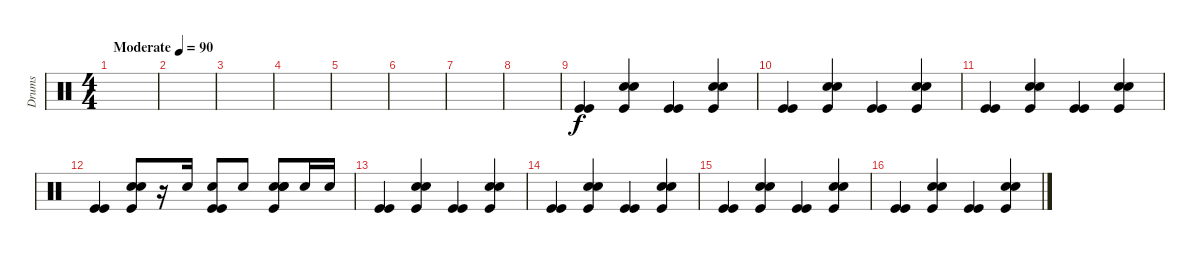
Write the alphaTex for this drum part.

\track ("Drums" "Drums") {instrument percussion}
\staff {score}
\articulation defaults
\ts (4 4)
\tempo (90 "Moderate")
\clef neutral
\ks c
|
|
|
|
|
|
|
|
("Kick (hit)" "Kick (hit)").4 ("Hand Clap (hit)" "Kick (hit)" "Snare (hit) 2").4 ("Kick (hit)" "Kick (hit)").4 ("Hand Clap (hit)" "Kick (hit)" "Snare (hit) 2").4 |
("Kick (hit)" "Kick (hit)").4 ("Hand Clap (hit)" "Kick (hit)" "Snare (hit) 2").4 ("Kick (hit)" "Kick (hit)").4 ("Hand Clap (hit)" "Kick (hit)" "Snare (hit) 2").4 |
("Kick (hit)" "Kick (hit)").4 ("Hand Clap (hit)" "Kick (hit)" "Snare (hit) 2").4 ("Kick (hit)" "Kick (hit)").4 ("Hand Clap (hit)" "Kick (hit)" "Snare (hit) 2").4 |
("Kick (hit)" "Kick (hit)").4 ("Hand Clap (hit)" "Kick (hit)" "Snare (hit) 2").8 r.16 "Hand Clap (hit)".16 ("Hand Clap (hit)" "Kick (hit)" "Kick (hit)").8 "Hand Clap (hit)".8 ("Hand Clap (hit)" "Hand Clap (hit)" "Kick (hit)" "Snare (hit) 2").8 "Hand Clap (hit)".16 "Hand Clap (hit)".16 |
("Kick (hit)" "Kick (hit)").4 ("Hand Clap (hit)" "Kick (hit)" "Snare (hit) 2").4 ("Kick (hit)" "Kick (hit)").4 ("Hand Clap (hit)" "Kick (hit)" "Snare (hit) 2").4 |
("Kick (hit)" "Kick (hit)").4 ("Hand Clap (hit)" "Kick (hit)" "Snare (hit) 2").4 ("Kick (hit)" "Kick (hit)").4 ("Hand Clap (hit)" "Kick (hit)" "Snare (hit) 2").4 |
("Kick (hit)" "Kick (hit)").4 ("Hand Clap (hit)" "Kick (hit)" "Snare (hit) 2").4 ("Kick (hit)" "Kick (hit)").4 ("Hand Clap (hit)" "Kick (hit)" "Snare (hit) 2").4 |
("Kick (hit)" "Kick (hit)").4 ("Hand Clap (hit)" "Kick (hit)" "Snare (hit) 2").4 ("Kick (hit)" "Kick (hit)").4 ("Hand Clap (hit)" "Kick (hit)" "Snare (hit) 2").4
